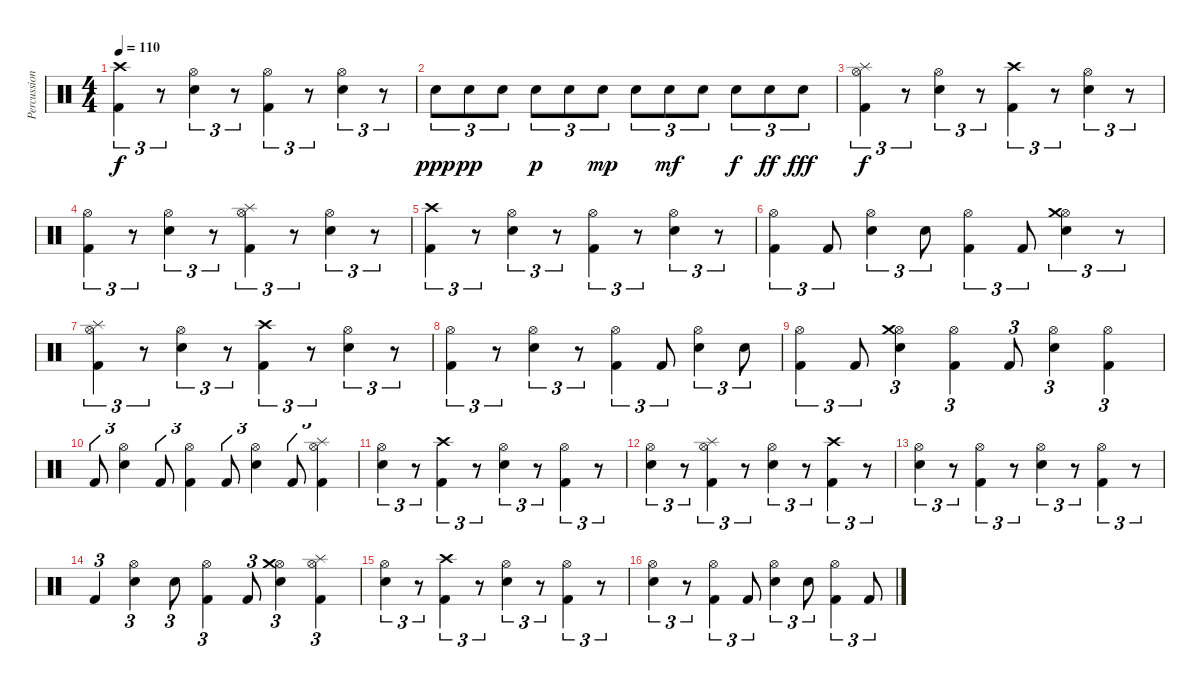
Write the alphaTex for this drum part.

\track ("Percussion" "Percussion") {instrument percussion}
\staff {score}
\articulation defaults
\ts (4 4)
\tempo 110
\clef neutral
\ks c
("Kick (hit) 2" "Crash high (hit)").4{tu (3 2) dy f} r.8{tu (3 2)} ("Electric Snare (hit)" "Hi-Hat (open)").4{tu (3 2)} r.8{tu (3 2)} ("Kick (hit) 2" "Hi-Hat (open)").4{tu (3 2)} r.8{tu (3 2)} ("Electric Snare (hit)" "Hi-Hat (open)").4{tu (3 2)} r.8{tu (3 2)} |
"Electric Snare (hit)".8{tu (3 2) dy ppp} "Electric Snare (hit)".8{tu (3 2) dy pp} "Electric Snare (hit)".8{tu (3 2)} "Electric Snare (hit)".8{tu (3 2) dy p} "Electric Snare (hit)".8{tu (3 2)} "Electric Snare (hit)".8{tu (3 2) dy mp} "Electric Snare (hit)".8{tu (3 2)} "Electric Snare (hit)".8{tu (3 2) dy mf} "Electric Snare (hit)".8{tu (3 2)} "Electric Snare (hit)".8{tu (3 2) dy f} "Electric Snare (hit)".8{tu (3 2) dy ff} "Electric Snare (hit)".8{tu (3 2) dy fff} |
("Kick (hit) 2" "Hi-Hat (open)" "Splash (hit)").4{tu (3 2) dy f} r.8{tu (3 2)} ("Electric Snare (hit)" "Hi-Hat (open)").4{tu (3 2)} r.8{tu (3 2)} ("Kick (hit) 2" "Crash high (hit)").4{tu (3 2)} r.8{tu (3 2)} ("Electric Snare (hit)" "Hi-Hat (open)").4{tu (3 2)} r.8{tu (3 2)} |
("Kick (hit) 2" "Hi-Hat (open)").4{tu (3 2)} r.8{tu (3 2)} ("Electric Snare (hit)" "Hi-Hat (open)").4{tu (3 2)} r.8{tu (3 2)} ("Kick (hit) 2" "Hi-Hat (open)" "Splash (hit)").4{tu (3 2)} r.8{tu (3 2)} ("Electric Snare (hit)" "Hi-Hat (open)").4{tu (3 2)} r.8{tu (3 2)} |
("Kick (hit) 2" "Crash high (hit)").4{tu (3 2)} r.8{tu (3 2)} ("Electric Snare (hit)" "Hi-Hat (open)").4{tu (3 2)} r.8{tu (3 2)} ("Kick (hit) 2" "Hi-Hat (open)").4{tu (3 2)} r.8{tu (3 2)} ("Electric Snare (hit)" "Hi-Hat (open)").4{tu (3 2)} r.8{tu (3 2)} |
("Kick (hit) 2" "Hi-Hat (open)").4{tu (3 2)} "Kick (hit) 2".8{tu (3 2)} ("Electric Snare (hit)" "Hi-Hat (open)").4{tu (3 2)} "Electric Snare (hit)".8{tu (3 2)} ("Kick (hit) 2" "Hi-Hat (open)").4{tu (3 2)} "Kick (hit) 2".8{tu (3 2)} ("Electric Snare (hit)" "Hi-Hat (open)" "Crash medium (hit)").4{tu (3 2)} r.8{tu (3 2)} |
("Kick (hit) 2" "Hi-Hat (open)" "Splash (hit)").4{tu (3 2)} r.8{tu (3 2)} ("Electric Snare (hit)" "Hi-Hat (open)").4{tu (3 2)} r.8{tu (3 2)} ("Kick (hit) 2" "Crash high (hit)").4{tu (3 2)} r.8{tu (3 2)} ("Electric Snare (hit)" "Hi-Hat (open)").4{tu (3 2)} r.8{tu (3 2)} |
("Kick (hit) 2" "Hi-Hat (open)").4{tu (3 2)} r.8{tu (3 2)} ("Electric Snare (hit)" "Hi-Hat (open)").4{tu (3 2)} r.8{tu (3 2)} ("Kick (hit) 2" "Hi-Hat (open)").4{tu (3 2)} "Kick (hit) 2".8{tu (3 2)} ("Electric Snare (hit)" "Hi-Hat (open)").4{tu (3 2)} "Electric Snare (hit)".8{tu (3 2)} |
("Kick (hit) 2" "Hi-Hat (open)").4{tu (3 2)} "Kick (hit) 2".8{tu (3 2)} ("Electric Snare (hit)" "Hi-Hat (open)" "Crash medium (hit)").4{tu (3 2)} ("Kick (hit) 2" "Hi-Hat (open)").4{tu (3 2)} "Kick (hit) 2".8{tu (3 2)} ("Electric Snare (hit)" "Hi-Hat (open)").4{tu (3 2)} ("Kick (hit) 2" "Hi-Hat (open)").4{tu (3 2)} |
"Kick (hit) 2".8{tu (3 2)} ("Electric Snare (hit)" "Hi-Hat (open)").4{tu (3 2)} "Kick (hit) 2".8{tu (3 2)} ("Kick (hit) 2" "Hi-Hat (open)").4{tu (3 2)} "Kick (hit) 2".8{tu (3 2)} ("Electric Snare (hit)" "Hi-Hat (open)").4{tu (3 2)} "Kick (hit) 2".8{tu (3 2)} ("Kick (hit) 2" "Hi-Hat (open)" "Splash (hit)").4{tu (3 2)} |
("Electric Snare (hit)" "Hi-Hat (open)").4{tu (3 2)} r.8{tu (3 2)} ("Kick (hit) 2" "Crash high (hit)").4{tu (3 2)} r.8{tu (3 2)} ("Electric Snare (hit)" "Hi-Hat (open)").4{tu (3 2)} r.8{tu (3 2)} ("Kick (hit) 2" "Hi-Hat (open)").4{tu (3 2)} r.8{tu (3 2)} |
("Electric Snare (hit)" "Hi-Hat (open)").4{tu (3 2)} r.8{tu (3 2)} ("Kick (hit) 2" "Hi-Hat (open)" "Splash (hit)").4{tu (3 2)} r.8{tu (3 2)} ("Electric Snare (hit)" "Hi-Hat (open)").4{tu (3 2)} r.8{tu (3 2)} ("Kick (hit) 2" "Crash high (hit)").4{tu (3 2)} r.8{tu (3 2)} |
("Electric Snare (hit)" "Hi-Hat (open)").4{tu (3 2)} r.8{tu (3 2)} ("Kick (hit) 2" "Hi-Hat (open)").4{tu (3 2)} r.8{tu (3 2)} ("Electric Snare (hit)" "Hi-Hat (open)").4{tu (3 2)} r.8{tu (3 2)} ("Kick (hit) 2" "Hi-Hat (open)").4{tu (3 2)} r.8{tu (3 2)} |
"Kick (hit) 2".4{tu (3 2)} ("Electric Snare (hit)" "Hi-Hat (open)").4{tu (3 2)} "Electric Snare (hit)".8{tu (3 2)} ("Kick (hit) 2" "Hi-Hat (open)").4{tu (3 2)} "Kick (hit) 2".8{tu (3 2)} ("Electric Snare (hit)" "Hi-Hat (open)" "Crash medium (hit)").4{tu (3 2)} ("Kick (hit) 2" "Hi-Hat (open)" "Splash (hit)").4{tu (3 2)} |
("Electric Snare (hit)" "Hi-Hat (open)").4{tu (3 2)} r.8{tu (3 2)} ("Kick (hit) 2" "Crash high (hit)").4{tu (3 2)} r.8{tu (3 2)} ("Electric Snare (hit)" "Hi-Hat (open)").4{tu (3 2)} r.8{tu (3 2)} ("Kick (hit) 2" "Hi-Hat (open)").4{tu (3 2)} r.8{tu (3 2)} |
("Electric Snare (hit)" "Hi-Hat (open)").4{tu (3 2)} r.8{tu (3 2)} ("Kick (hit) 2" "Hi-Hat (open)").4{tu (3 2)} "Kick (hit) 2".8{tu (3 2)} ("Electric Snare (hit)" "Hi-Hat (open)").4{tu (3 2)} "Electric Snare (hit)".8{tu (3 2)} ("Kick (hit) 2" "Hi-Hat (open)").4{tu (3 2)} "Kick (hit) 2".8{tu (3 2)}
